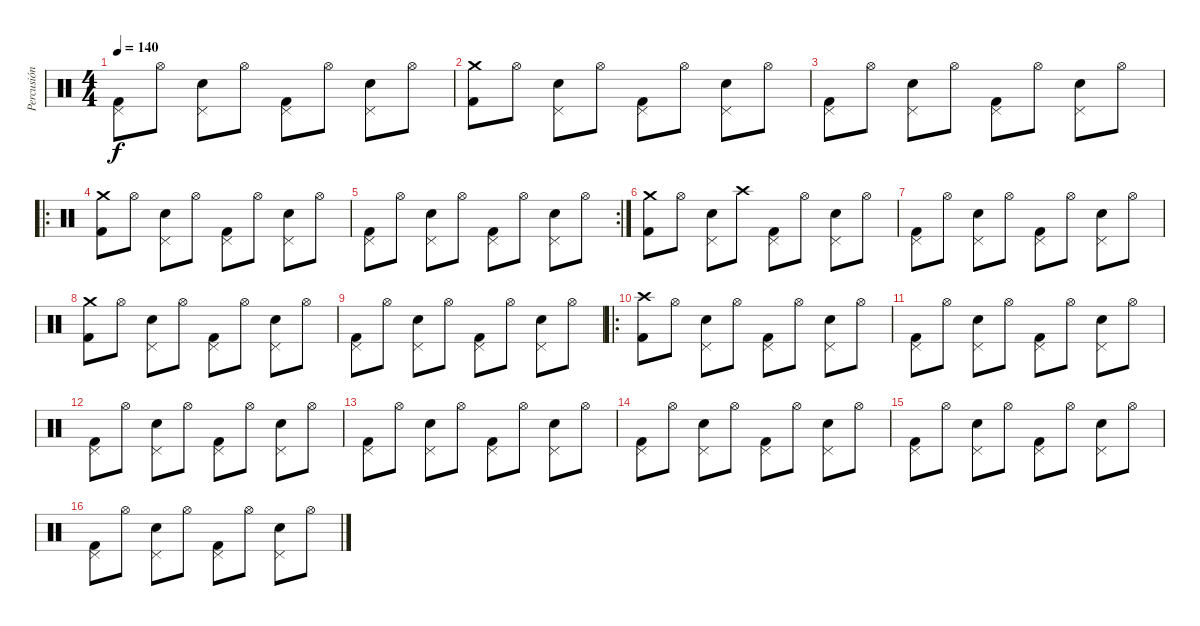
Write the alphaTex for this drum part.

\track ("Percusión" "Percusión") {instrument percussion}
\staff {score}
\articulation defaults
\ts (4 4)
\tempo 140
\clef neutral
\ks c
("Pedal Hi-Hat (hit)" "Kick (hit) 2").8{dy f} "Hi-Hat (open)".8 ("Pedal Hi-Hat (hit)" "Electric Snare (hit)").8 "Hi-Hat (open)".8 ("Pedal Hi-Hat (hit)" "Kick (hit) 2").8 "Hi-Hat (open)".8 ("Pedal Hi-Hat (hit)" "Electric Snare (hit)").8 "Hi-Hat (open)".8 |
("Crash medium (hit)" "Kick (hit) 2").8 "Hi-Hat (open)".8 ("Pedal Hi-Hat (hit)" "Electric Snare (hit)").8 "Hi-Hat (open)".8 ("Pedal Hi-Hat (hit)" "Kick (hit) 2").8 "Hi-Hat (open)".8 ("Pedal Hi-Hat (hit)" "Electric Snare (hit)").8 "Hi-Hat (open)".8 |
("Pedal Hi-Hat (hit)" "Kick (hit) 2").8 "Hi-Hat (open)".8 ("Pedal Hi-Hat (hit)" "Electric Snare (hit)").8 "Hi-Hat (open)".8 ("Pedal Hi-Hat (hit)" "Kick (hit) 2").8 "Hi-Hat (open)".8 ("Pedal Hi-Hat (hit)" "Electric Snare (hit)").8 "Hi-Hat (open)".8 |
\ro
("Crash medium (hit)" "Kick (hit) 2").8 "Hi-Hat (open)".8 ("Pedal Hi-Hat (hit)" "Electric Snare (hit)").8 "Hi-Hat (open)".8 ("Pedal Hi-Hat (hit)" "Kick (hit) 2").8 "Hi-Hat (open)".8 ("Pedal Hi-Hat (hit)" "Electric Snare (hit)").8 "Hi-Hat (open)".8 |
\rc 2
("Pedal Hi-Hat (hit)" "Kick (hit) 2").8 "Hi-Hat (open)".8 ("Pedal Hi-Hat (hit)" "Electric Snare (hit)").8 "Hi-Hat (open)".8 ("Pedal Hi-Hat (hit)" "Kick (hit) 2").8 "Hi-Hat (open)".8 ("Pedal Hi-Hat (hit)" "Electric Snare (hit)").8 "Hi-Hat (open)".8 |
("Crash medium (hit)" "Kick (hit) 2").8 "Hi-Hat (open)".8 ("Pedal Hi-Hat (hit)" "Electric Snare (hit)").8 "Crash high (hit)".8 ("Pedal Hi-Hat (hit)" "Kick (hit) 2").8 "Hi-Hat (open)".8 ("Pedal Hi-Hat (hit)" "Electric Snare (hit)").8 "Hi-Hat (open)".8 |
("Pedal Hi-Hat (hit)" "Kick (hit) 2").8 "Hi-Hat (open)".8 ("Pedal Hi-Hat (hit)" "Electric Snare (hit)").8 "Hi-Hat (open)".8 ("Pedal Hi-Hat (hit)" "Kick (hit) 2").8 "Hi-Hat (open)".8 ("Pedal Hi-Hat (hit)" "Electric Snare (hit)").8 "Hi-Hat (open)".8 |
("Crash medium (hit)" "Kick (hit) 2").8 "Hi-Hat (open)".8 ("Pedal Hi-Hat (hit)" "Electric Snare (hit)").8 "Hi-Hat (open)".8 ("Pedal Hi-Hat (hit)" "Kick (hit) 2").8 "Hi-Hat (open)".8 ("Pedal Hi-Hat (hit)" "Electric Snare (hit)").8 "Hi-Hat (open)".8 |
("Pedal Hi-Hat (hit)" "Kick (hit) 2").8 "Hi-Hat (open)".8 ("Pedal Hi-Hat (hit)" "Electric Snare (hit)").8 "Hi-Hat (open)".8 ("Pedal Hi-Hat (hit)" "Kick (hit) 2").8 "Hi-Hat (open)".8 ("Pedal Hi-Hat (hit)" "Electric Snare (hit)").8 "Hi-Hat (open)".8 |
\ro
("Crash high (hit)" "Kick (hit) 2").8 "Hi-Hat (open)".8 ("Pedal Hi-Hat (hit)" "Electric Snare (hit)").8 "Hi-Hat (open)".8 ("Pedal Hi-Hat (hit)" "Kick (hit) 2").8 "Hi-Hat (open)".8 ("Pedal Hi-Hat (hit)" "Electric Snare (hit)").8 "Hi-Hat (open)".8 |
("Pedal Hi-Hat (hit)" "Kick (hit) 2").8 "Hi-Hat (open)".8 ("Pedal Hi-Hat (hit)" "Electric Snare (hit)").8 "Hi-Hat (open)".8 ("Pedal Hi-Hat (hit)" "Kick (hit) 2").8 "Hi-Hat (open)".8 ("Pedal Hi-Hat (hit)" "Electric Snare (hit)").8 "Hi-Hat (open)".8 |
("Pedal Hi-Hat (hit)" "Kick (hit) 2").8 "Hi-Hat (open)".8 ("Pedal Hi-Hat (hit)" "Electric Snare (hit)").8 "Hi-Hat (open)".8 ("Pedal Hi-Hat (hit)" "Kick (hit) 2").8 "Hi-Hat (open)".8 ("Pedal Hi-Hat (hit)" "Electric Snare (hit)").8 "Hi-Hat (open)".8 |
("Pedal Hi-Hat (hit)" "Kick (hit) 2").8 "Hi-Hat (open)".8 ("Pedal Hi-Hat (hit)" "Electric Snare (hit)").8 "Hi-Hat (open)".8 ("Pedal Hi-Hat (hit)" "Kick (hit) 2").8 "Hi-Hat (open)".8 ("Pedal Hi-Hat (hit)" "Electric Snare (hit)").8 "Hi-Hat (open)".8 |
("Pedal Hi-Hat (hit)" "Kick (hit) 2").8 "Hi-Hat (open)".8 ("Pedal Hi-Hat (hit)" "Electric Snare (hit)").8 "Hi-Hat (open)".8 ("Pedal Hi-Hat (hit)" "Kick (hit) 2").8 "Hi-Hat (open)".8 ("Pedal Hi-Hat (hit)" "Electric Snare (hit)").8 "Hi-Hat (open)".8 |
("Pedal Hi-Hat (hit)" "Kick (hit) 2").8 "Hi-Hat (open)".8 ("Pedal Hi-Hat (hit)" "Electric Snare (hit)").8 "Hi-Hat (open)".8 ("Pedal Hi-Hat (hit)" "Kick (hit) 2").8 "Hi-Hat (open)".8 ("Pedal Hi-Hat (hit)" "Electric Snare (hit)").8 "Hi-Hat (open)".8 |
("Pedal Hi-Hat (hit)" "Kick (hit) 2").8 "Hi-Hat (open)".8 ("Pedal Hi-Hat (hit)" "Electric Snare (hit)").8 "Hi-Hat (open)".8 ("Pedal Hi-Hat (hit)" "Kick (hit) 2").8 "Hi-Hat (open)".8 ("Pedal Hi-Hat (hit)" "Electric Snare (hit)").8 "Hi-Hat (open)".8
